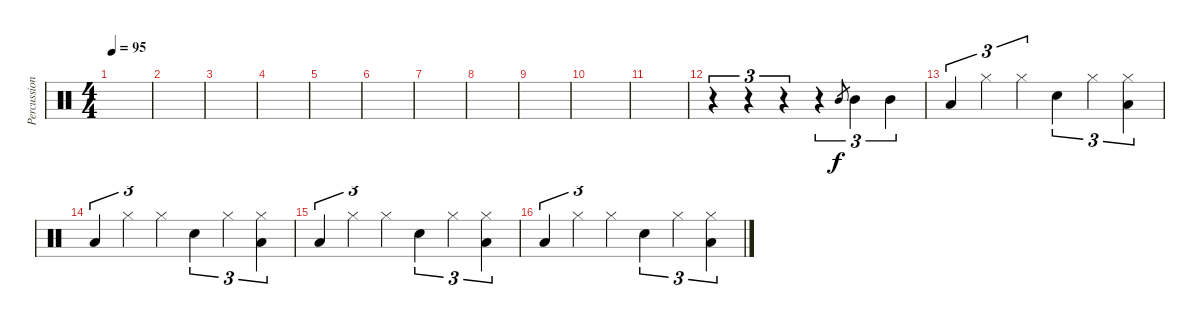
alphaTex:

\track ("Percussion" "Percussion") {instrument percussion}
\staff {score}
\articulation defaults
\ts (4 4)
\tempo 95
\clef neutral
\ks c
|
|
|
|
|
|
|
|
|
|
|
r.4{tu (3 2)} r.4{tu (3 2)} r.4{tu (3 2)} r.4{tu (3 2)} "Mid Tom (hit)".8{gr} "Mid Tom (hit)".4{tu (3 2)} "Mid Tom (hit)".4{tu (3 2)} |
"Low Floor Tom (hit)".4{tu (3 2)} "Hi-Hat (closed)".4{tu (3 2)} "Hi-Hat (closed)".4{tu (3 2)} "Electric Snare (hit)".4{tu (3 2)} "Hi-Hat (closed)".4{tu (3 2)} ("Hi-Hat (closed)" "Low Floor Tom (hit)").4{tu (3 2)} |
"Low Floor Tom (hit)".4{tu (3 2)} "Hi-Hat (closed)".4{tu (3 2)} "Hi-Hat (closed)".4{tu (3 2)} "Electric Snare (hit)".4{tu (3 2)} "Hi-Hat (closed)".4{tu (3 2)} ("Hi-Hat (closed)" "Low Floor Tom (hit)").4{tu (3 2)} |
"Low Floor Tom (hit)".4{tu (3 2)} "Hi-Hat (closed)".4{tu (3 2)} "Hi-Hat (closed)".4{tu (3 2)} "Electric Snare (hit)".4{tu (3 2)} "Hi-Hat (closed)".4{tu (3 2)} ("Hi-Hat (closed)" "Low Floor Tom (hit)").4{tu (3 2)} |
"Low Floor Tom (hit)".4{tu (3 2)} "Hi-Hat (closed)".4{tu (3 2)} "Hi-Hat (closed)".4{tu (3 2)} "Electric Snare (hit)".4{tu (3 2)} "Hi-Hat (closed)".4{tu (3 2)} ("Hi-Hat (closed)" "Low Floor Tom (hit)").4{tu (3 2)}
